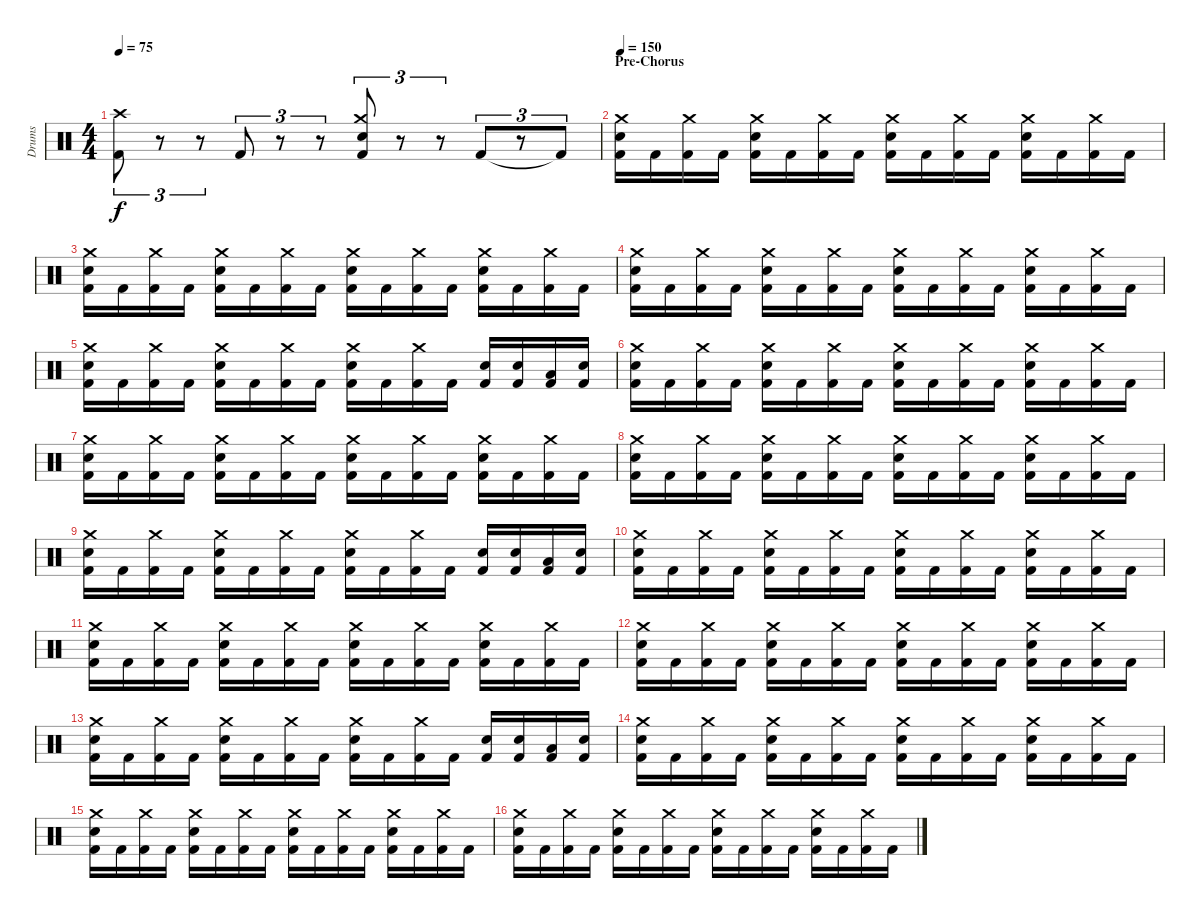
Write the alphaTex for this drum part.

\track ("Drums" "Drums") {instrument percussion}
\staff {score}
\articulation defaults
\ts (4 4)
\tempo 75
\clef neutral
\ks c
("Crash high (hit)" "Kick (hit) 2").8{tu (3 2) dy f} r.8{tu (3 2)} r.8{tu (3 2)} "Kick (hit) 2".8{tu (3 2)} r.8{tu (3 2)} r.8{tu (3 2)} ("Crash medium (hit)" "Electric Snare (hit)" "Kick (hit) 2").8{tu (3 2)} r.8{tu (3 2)} r.8{tu (3 2)} "Kick (hit) 2".8{tu (3 2)} r.8{tu (3 2)} "Kick (hit) 2"{t}.8{tu (3 2)} |
\section ("" "Pre-Chorus")
\tempo 150
("Crash medium (hit)" "Electric Snare (hit)" "Kick (hit) 2").16 "Kick (hit) 2".16 ("Crash medium (hit)" "Kick (hit) 2").16 "Kick (hit) 2".16 ("Crash medium (hit)" "Electric Snare (hit)" "Kick (hit) 2").16 "Kick (hit) 2".16 ("Crash medium (hit)" "Kick (hit) 2").16 "Kick (hit) 2".16 ("Crash medium (hit)" "Electric Snare (hit)" "Kick (hit) 2").16 "Kick (hit) 2".16 ("Crash medium (hit)" "Kick (hit) 2").16 "Kick (hit) 2".16 ("Crash medium (hit)" "Electric Snare (hit)" "Kick (hit) 2").16 "Kick (hit) 2".16 ("Crash medium (hit)" "Kick (hit) 2").16 "Kick (hit) 2".16 |
("Crash medium (hit)" "Electric Snare (hit)" "Kick (hit) 2").16 "Kick (hit) 2".16 ("Crash medium (hit)" "Kick (hit) 2").16 "Kick (hit) 2".16 ("Crash medium (hit)" "Electric Snare (hit)" "Kick (hit) 2").16 "Kick (hit) 2".16 ("Crash medium (hit)" "Kick (hit) 2").16 "Kick (hit) 2".16 ("Crash medium (hit)" "Electric Snare (hit)" "Kick (hit) 2").16 "Kick (hit) 2".16 ("Crash medium (hit)" "Kick (hit) 2").16 "Kick (hit) 2".16 ("Crash medium (hit)" "Electric Snare (hit)" "Kick (hit) 2").16 "Kick (hit) 2".16 ("Crash medium (hit)" "Kick (hit) 2").16 "Kick (hit) 2".16 |
("Crash medium (hit)" "Electric Snare (hit)" "Kick (hit) 2").16 "Kick (hit) 2".16 ("Crash medium (hit)" "Kick (hit) 2").16 "Kick (hit) 2".16 ("Crash medium (hit)" "Electric Snare (hit)" "Kick (hit) 2").16 "Kick (hit) 2".16 ("Crash medium (hit)" "Kick (hit) 2").16 "Kick (hit) 2".16 ("Crash medium (hit)" "Electric Snare (hit)" "Kick (hit) 2").16 "Kick (hit) 2".16 ("Crash medium (hit)" "Kick (hit) 2").16 "Kick (hit) 2".16 ("Crash medium (hit)" "Electric Snare (hit)" "Kick (hit) 2").16 "Kick (hit) 2".16 ("Crash medium (hit)" "Kick (hit) 2").16 "Kick (hit) 2".16 |
("Crash medium (hit)" "Electric Snare (hit)" "Kick (hit) 2").16 "Kick (hit) 2".16 ("Crash medium (hit)" "Kick (hit) 2").16 "Kick (hit) 2".16 ("Crash medium (hit)" "Electric Snare (hit)" "Kick (hit) 2").16 "Kick (hit) 2".16 ("Crash medium (hit)" "Kick (hit) 2").16 "Kick (hit) 2".16 ("Crash medium (hit)" "Electric Snare (hit)" "Kick (hit) 2").16 "Kick (hit) 2".16 ("Crash medium (hit)" "Kick (hit) 2").16 "Kick (hit) 2".16 ("Electric Snare (hit)" "Kick (hit) 2").16 ("Electric Snare (hit)" "Kick (hit) 2").16 ("Low Tom (hit)" "Kick (hit) 2").16 ("Electric Snare (hit)" "Kick (hit) 2").16 |
("Crash medium (hit)" "Electric Snare (hit)" "Kick (hit) 2").16 "Kick (hit) 2".16 ("Crash medium (hit)" "Kick (hit) 2").16 "Kick (hit) 2".16 ("Crash medium (hit)" "Electric Snare (hit)" "Kick (hit) 2").16 "Kick (hit) 2".16 ("Crash medium (hit)" "Kick (hit) 2").16 "Kick (hit) 2".16 ("Crash medium (hit)" "Electric Snare (hit)" "Kick (hit) 2").16 "Kick (hit) 2".16 ("Crash medium (hit)" "Kick (hit) 2").16 "Kick (hit) 2".16 ("Crash medium (hit)" "Electric Snare (hit)" "Kick (hit) 2").16 "Kick (hit) 2".16 ("Crash medium (hit)" "Kick (hit) 2").16 "Kick (hit) 2".16 |
("Crash medium (hit)" "Electric Snare (hit)" "Kick (hit) 2").16 "Kick (hit) 2".16 ("Crash medium (hit)" "Kick (hit) 2").16 "Kick (hit) 2".16 ("Crash medium (hit)" "Electric Snare (hit)" "Kick (hit) 2").16 "Kick (hit) 2".16 ("Crash medium (hit)" "Kick (hit) 2").16 "Kick (hit) 2".16 ("Crash medium (hit)" "Electric Snare (hit)" "Kick (hit) 2").16 "Kick (hit) 2".16 ("Crash medium (hit)" "Kick (hit) 2").16 "Kick (hit) 2".16 ("Crash medium (hit)" "Electric Snare (hit)" "Kick (hit) 2").16 "Kick (hit) 2".16 ("Crash medium (hit)" "Kick (hit) 2").16 "Kick (hit) 2".16 |
("Crash medium (hit)" "Electric Snare (hit)" "Kick (hit) 2").16 "Kick (hit) 2".16 ("Crash medium (hit)" "Kick (hit) 2").16 "Kick (hit) 2".16 ("Crash medium (hit)" "Electric Snare (hit)" "Kick (hit) 2").16 "Kick (hit) 2".16 ("Crash medium (hit)" "Kick (hit) 2").16 "Kick (hit) 2".16 ("Crash medium (hit)" "Electric Snare (hit)" "Kick (hit) 2").16 "Kick (hit) 2".16 ("Crash medium (hit)" "Kick (hit) 2").16 "Kick (hit) 2".16 ("Crash medium (hit)" "Electric Snare (hit)" "Kick (hit) 2").16 "Kick (hit) 2".16 ("Crash medium (hit)" "Kick (hit) 2").16 "Kick (hit) 2".16 |
("Crash medium (hit)" "Electric Snare (hit)" "Kick (hit) 2").16 "Kick (hit) 2".16 ("Crash medium (hit)" "Kick (hit) 2").16 "Kick (hit) 2".16 ("Crash medium (hit)" "Electric Snare (hit)" "Kick (hit) 2").16 "Kick (hit) 2".16 ("Crash medium (hit)" "Kick (hit) 2").16 "Kick (hit) 2".16 ("Crash medium (hit)" "Electric Snare (hit)" "Kick (hit) 2").16 "Kick (hit) 2".16 ("Crash medium (hit)" "Kick (hit) 2").16 "Kick (hit) 2".16 ("Electric Snare (hit)" "Kick (hit) 2").16 ("Electric Snare (hit)" "Kick (hit) 2").16 ("Low Tom (hit)" "Kick (hit) 2").16 ("Electric Snare (hit)" "Kick (hit) 2").16 |
("Crash medium (hit)" "Electric Snare (hit)" "Kick (hit) 2").16 "Kick (hit) 2".16 ("Crash medium (hit)" "Kick (hit) 2").16 "Kick (hit) 2".16 ("Crash medium (hit)" "Electric Snare (hit)" "Kick (hit) 2").16 "Kick (hit) 2".16 ("Crash medium (hit)" "Kick (hit) 2").16 "Kick (hit) 2".16 ("Crash medium (hit)" "Electric Snare (hit)" "Kick (hit) 2").16 "Kick (hit) 2".16 ("Crash medium (hit)" "Kick (hit) 2").16 "Kick (hit) 2".16 ("Crash medium (hit)" "Electric Snare (hit)" "Kick (hit) 2").16 "Kick (hit) 2".16 ("Crash medium (hit)" "Kick (hit) 2").16 "Kick (hit) 2".16 |
("Crash medium (hit)" "Electric Snare (hit)" "Kick (hit) 2").16 "Kick (hit) 2".16 ("Crash medium (hit)" "Kick (hit) 2").16 "Kick (hit) 2".16 ("Crash medium (hit)" "Electric Snare (hit)" "Kick (hit) 2").16 "Kick (hit) 2".16 ("Crash medium (hit)" "Kick (hit) 2").16 "Kick (hit) 2".16 ("Crash medium (hit)" "Electric Snare (hit)" "Kick (hit) 2").16 "Kick (hit) 2".16 ("Crash medium (hit)" "Kick (hit) 2").16 "Kick (hit) 2".16 ("Crash medium (hit)" "Electric Snare (hit)" "Kick (hit) 2").16 "Kick (hit) 2".16 ("Crash medium (hit)" "Kick (hit) 2").16 "Kick (hit) 2".16 |
("Crash medium (hit)" "Electric Snare (hit)" "Kick (hit) 2").16 "Kick (hit) 2".16 ("Crash medium (hit)" "Kick (hit) 2").16 "Kick (hit) 2".16 ("Crash medium (hit)" "Electric Snare (hit)" "Kick (hit) 2").16 "Kick (hit) 2".16 ("Crash medium (hit)" "Kick (hit) 2").16 "Kick (hit) 2".16 ("Crash medium (hit)" "Electric Snare (hit)" "Kick (hit) 2").16 "Kick (hit) 2".16 ("Crash medium (hit)" "Kick (hit) 2").16 "Kick (hit) 2".16 ("Crash medium (hit)" "Electric Snare (hit)" "Kick (hit) 2").16 "Kick (hit) 2".16 ("Crash medium (hit)" "Kick (hit) 2").16 "Kick (hit) 2".16 |
("Crash medium (hit)" "Electric Snare (hit)" "Kick (hit) 2").16 "Kick (hit) 2".16 ("Crash medium (hit)" "Kick (hit) 2").16 "Kick (hit) 2".16 ("Crash medium (hit)" "Electric Snare (hit)" "Kick (hit) 2").16 "Kick (hit) 2".16 ("Crash medium (hit)" "Kick (hit) 2").16 "Kick (hit) 2".16 ("Crash medium (hit)" "Electric Snare (hit)" "Kick (hit) 2").16 "Kick (hit) 2".16 ("Crash medium (hit)" "Kick (hit) 2").16 "Kick (hit) 2".16 ("Electric Snare (hit)" "Kick (hit) 2").16 ("Electric Snare (hit)" "Kick (hit) 2").16 ("Low Tom (hit)" "Kick (hit) 2").16 ("Electric Snare (hit)" "Kick (hit) 2").16 |
("Crash medium (hit)" "Electric Snare (hit)" "Kick (hit) 2").16 "Kick (hit) 2".16 ("Crash medium (hit)" "Kick (hit) 2").16 "Kick (hit) 2".16 ("Crash medium (hit)" "Electric Snare (hit)" "Kick (hit) 2").16 "Kick (hit) 2".16 ("Crash medium (hit)" "Kick (hit) 2").16 "Kick (hit) 2".16 ("Crash medium (hit)" "Electric Snare (hit)" "Kick (hit) 2").16 "Kick (hit) 2".16 ("Crash medium (hit)" "Kick (hit) 2").16 "Kick (hit) 2".16 ("Crash medium (hit)" "Electric Snare (hit)" "Kick (hit) 2").16 "Kick (hit) 2".16 ("Crash medium (hit)" "Kick (hit) 2").16 "Kick (hit) 2".16 |
("Crash medium (hit)" "Electric Snare (hit)" "Kick (hit) 2").16 "Kick (hit) 2".16 ("Crash medium (hit)" "Kick (hit) 2").16 "Kick (hit) 2".16 ("Crash medium (hit)" "Electric Snare (hit)" "Kick (hit) 2").16 "Kick (hit) 2".16 ("Crash medium (hit)" "Kick (hit) 2").16 "Kick (hit) 2".16 ("Crash medium (hit)" "Electric Snare (hit)" "Kick (hit) 2").16 "Kick (hit) 2".16 ("Crash medium (hit)" "Kick (hit) 2").16 "Kick (hit) 2".16 ("Crash medium (hit)" "Electric Snare (hit)" "Kick (hit) 2").16 "Kick (hit) 2".16 ("Crash medium (hit)" "Kick (hit) 2").16 "Kick (hit) 2".16 |
("Crash medium (hit)" "Electric Snare (hit)" "Kick (hit) 2").16 "Kick (hit) 2".16 ("Crash medium (hit)" "Kick (hit) 2").16 "Kick (hit) 2".16 ("Crash medium (hit)" "Electric Snare (hit)" "Kick (hit) 2").16 "Kick (hit) 2".16 ("Crash medium (hit)" "Kick (hit) 2").16 "Kick (hit) 2".16 ("Crash medium (hit)" "Electric Snare (hit)" "Kick (hit) 2").16 "Kick (hit) 2".16 ("Crash medium (hit)" "Kick (hit) 2").16 "Kick (hit) 2".16 ("Crash medium (hit)" "Electric Snare (hit)" "Kick (hit) 2").16 "Kick (hit) 2".16 ("Crash medium (hit)" "Kick (hit) 2").16 "Kick (hit) 2".16
